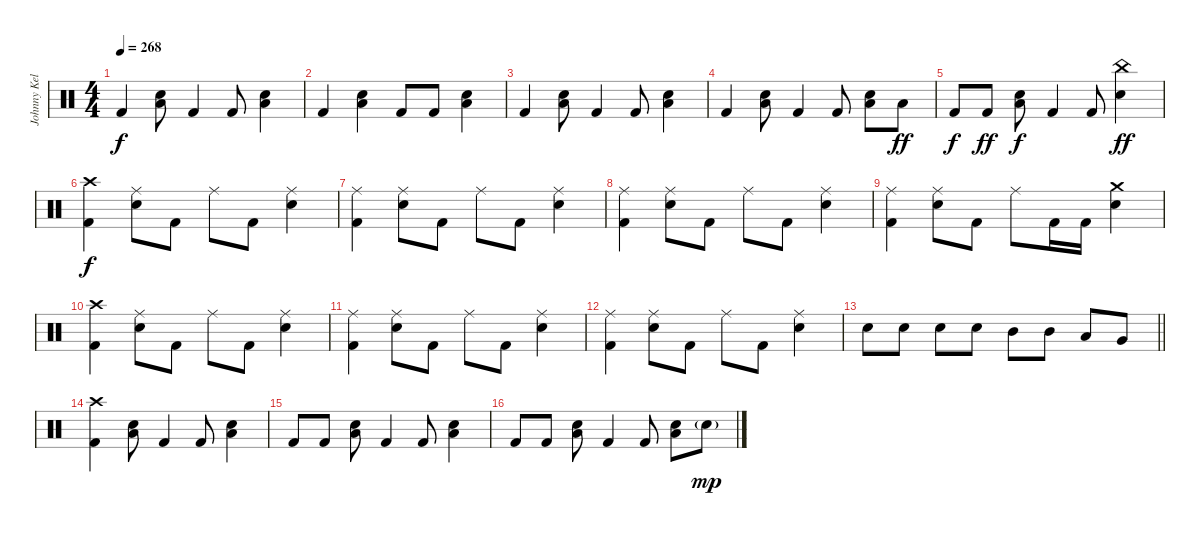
\track ("Johnny Kelly" "Johnny Kel") {instrument percussion}
\staff {score}
\articulation defaults
\ts (4 4)
\tempo 268
\clef neutral
\ks c "Kick (hit) 2".4{dy f}
("Electric Snare (hit)" "Low Floor Tom (hit)").8 "Kick (hit) 2".4 "Kick (hit) 2".8 ("Electric Snare (hit)" "Low Floor Tom (hit)").4 |
"Kick (hit) 2".4 ("Electric Snare (hit)" "Low Floor Tom (hit)").4 "Kick (hit) 2".8 "Kick (hit) 2".8 ("Electric Snare (hit)" "Low Floor Tom (hit)").4 |
"Kick (hit) 2".4 ("Electric Snare (hit)" "Low Floor Tom (hit)").8 "Kick (hit) 2".4 "Kick (hit) 2".8 ("Electric Snare (hit)" "Low Floor Tom (hit)").4 |
"Kick (hit) 2".4 ("Electric Snare (hit)" "Low Floor Tom (hit)").8 "Kick (hit) 2".4 "Kick (hit) 2".8 ("Electric Snare (hit)" "Low Floor Tom (hit)").8 "Low Floor Tom (hit)".8{dy ff} |
"Kick (hit) 2".8{dy f} "Kick (hit) 2".8{dy ff} ("Electric Snare (hit)" "Low Floor Tom (hit)").8{dy f} "Kick (hit) 2".4 "Kick (hit) 2".8 ("China (hit)" "Electric Snare (hit)").4{dy ff} |
("Crash high (hit)" "Kick (hit) 2").4{dy f} ("Ride (middle)" "Electric Snare (hit)").8 "Kick (hit) 2".8 "Ride (middle)".8 "Kick (hit) 2".8 ("Ride (middle)" "Electric Snare (hit)").4 |
("Ride (middle)" "Kick (hit) 2").4 ("Ride (middle)" "Electric Snare (hit)").8 "Kick (hit) 2".8 "Ride (middle)".8 "Kick (hit) 2".8 ("Ride (middle)" "Electric Snare (hit)").4 |
("Ride (middle)" "Kick (hit) 2").4 ("Ride (middle)" "Electric Snare (hit)").8 "Kick (hit) 2".8 "Ride (middle)".8 "Kick (hit) 2".8 ("Ride (middle)" "Electric Snare (hit)").4 |
("Ride (middle)" "Kick (hit) 2").4 ("Ride (middle)" "Electric Snare (hit)").8 "Kick (hit) 2".8 "Ride (middle)".8 "Kick (hit) 2".16 "Kick (hit) 2".16 ("Crash medium (hit)" "Electric Snare (hit)").4 |
("Crash high (hit)" "Kick (hit) 2").4 ("Ride (middle)" "Electric Snare (hit)").8 "Kick (hit) 2".8 "Ride (middle)".8 "Kick (hit) 2".8 ("Ride (middle)" "Electric Snare (hit)").4 |
("Ride (middle)" "Kick (hit) 2").4 ("Ride (middle)" "Electric Snare (hit)").8 "Kick (hit) 2".8 "Ride (middle)".8 "Kick (hit) 2".8 ("Ride (middle)" "Electric Snare (hit)").4 |
("Ride (middle)" "Kick (hit) 2").4 ("Ride (middle)" "Electric Snare (hit)").8 "Kick (hit) 2".8 "Ride (middle)".8 "Kick (hit) 2".8 ("Ride (middle)" "Electric Snare (hit)").4 |
\barLineRight lightlight "Electric Snare (hit)".8 "Electric Snare (hit)".8 "Electric Snare (hit)".8 "Electric Snare (hit)".8 "Mid Tom (hit)".8 "Mid Tom (hit)".8 "Low Tom (hit)".8 "Very Low Tom (hit)".8
|
\section ("" "")
("Crash high (hit)" "Kick (hit) 2").4 ("Electric Snare (hit)" "Low Floor Tom (hit)").8 "Kick (hit) 2".4 "Kick (hit) 2".8 ("Electric Snare (hit)" "Low Floor Tom (hit)").4 |
"Kick (hit) 2".8 "Kick (hit) 2".8 ("Electric Snare (hit)" "Low Floor Tom (hit)").8 "Kick (hit) 2".4 "Kick (hit) 2".8 ("Electric Snare (hit)" "Low Floor Tom (hit)").4 |
"Kick (hit) 2".8 "Kick (hit) 2".8 ("Electric Snare (hit)" "Low Floor Tom (hit)").8 "Kick (hit) 2".4 "Kick (hit) 2".8 ("Electric Snare (hit)" "Low Floor Tom (hit)").8 "Electric Snare (hit)"{g}.8{dy mp}
